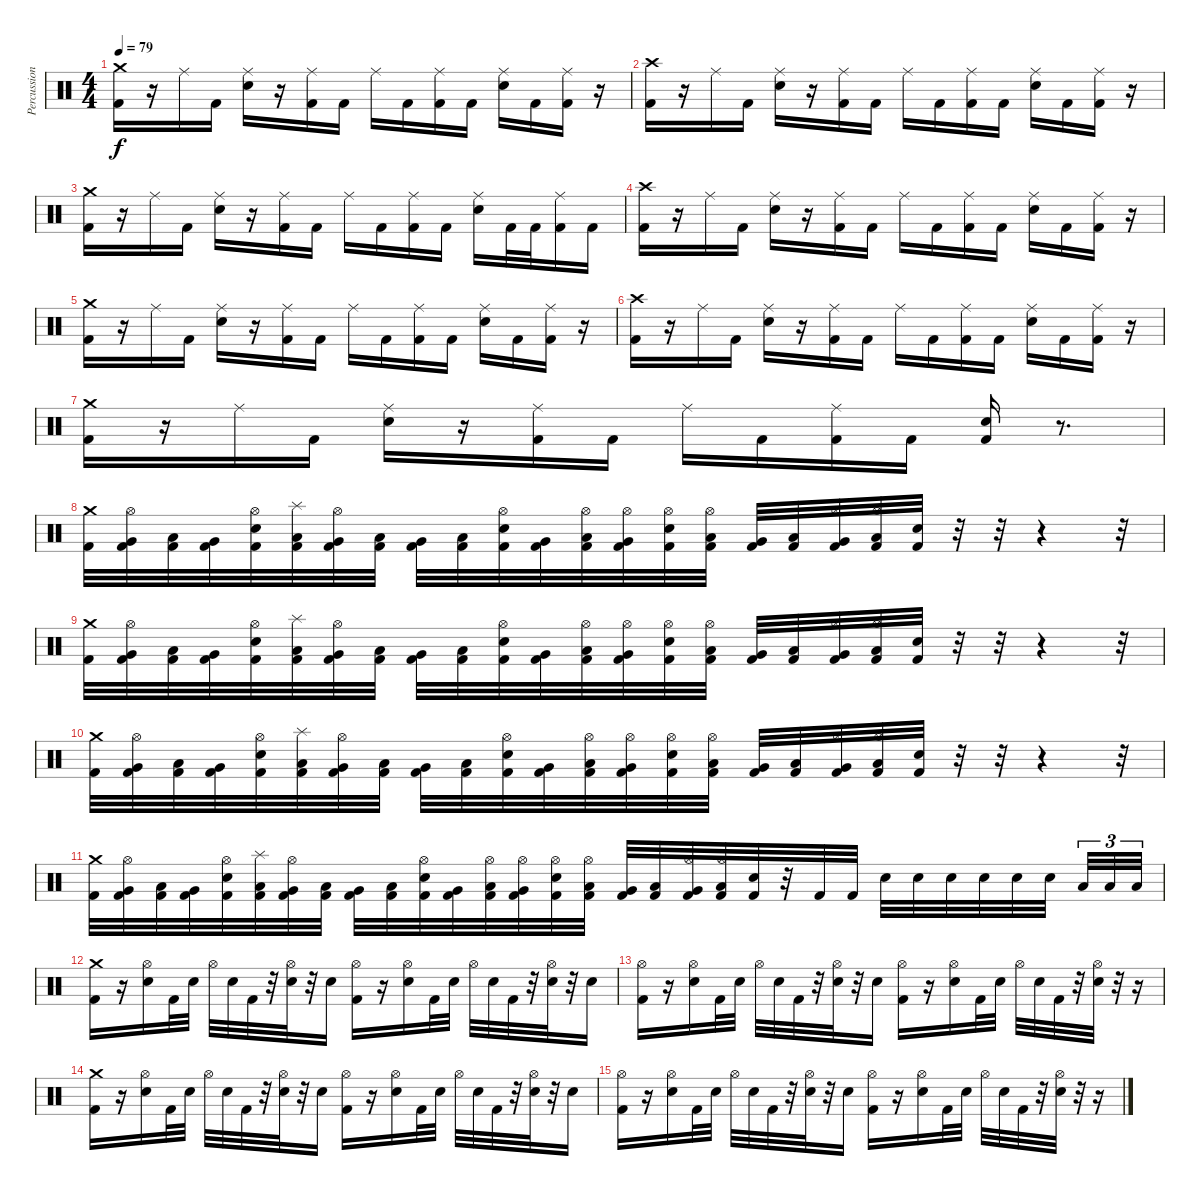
\track ("Percussion" "Percussion") {instrument percussion}
\staff {score}
\articulation defaults
\ts (4 4)
\tempo 79
\clef neutral
\ks c
("Crash medium (hit)" "Kick (hit) 2").16{dy f} r.16 "Ride (middle)".16 "Kick (hit) 2".16 ("Ride (middle)" "Electric Snare (hit)").16 r.16 ("Ride (middle)" "Kick (hit) 2").16 "Kick (hit) 2".16 "Ride (middle)".16 "Kick (hit) 2".16 ("Ride (middle)" "Kick (hit) 2").16 "Kick (hit) 2".16 ("Ride (middle)" "Electric Snare (hit)").16 "Kick (hit) 2".16 ("Ride (middle)" "Kick (hit) 2").16 r.16 |
("Crash high (hit)" "Kick (hit) 2").16 r.16 "Ride (middle)".16 "Kick (hit) 2".16 ("Ride (middle)" "Electric Snare (hit)").16 r.16 ("Ride (middle)" "Kick (hit) 2").16 "Kick (hit) 2".16 "Ride (middle)".16 "Kick (hit) 2".16 ("Ride (middle)" "Kick (hit) 2").16 "Kick (hit) 2".16 ("Ride (middle)" "Electric Snare (hit)").16 "Kick (hit) 2".16 ("Ride (middle)" "Kick (hit) 2").16 r.16 |
("Crash medium (hit)" "Kick (hit) 2").16 r.16 "Ride (middle)".16 "Kick (hit) 2".16 ("Ride (middle)" "Electric Snare (hit)").16 r.16 ("Ride (middle)" "Kick (hit) 2").16 "Kick (hit) 2".16 "Ride (middle)".16 "Kick (hit) 2".16 ("Ride (middle)" "Kick (hit) 2").16 "Kick (hit) 2".16 ("Ride (middle)" "Electric Snare (hit)").16 "Kick (hit) 2".32 "Kick (hit) 2".32 ("Ride (middle)" "Kick (hit) 2").16 "Kick (hit) 2".16 |
("Crash high (hit)" "Kick (hit) 2").16 r.16 "Ride (middle)".16 "Kick (hit) 2".16 ("Ride (middle)" "Electric Snare (hit)").16 r.16 ("Ride (middle)" "Kick (hit) 2").16 "Kick (hit) 2".16 "Ride (middle)".16 "Kick (hit) 2".16 ("Ride (middle)" "Kick (hit) 2").16 "Kick (hit) 2".16 ("Ride (middle)" "Electric Snare (hit)").16 "Kick (hit) 2".16 ("Ride (middle)" "Kick (hit) 2").16 r.16 |
("Crash medium (hit)" "Kick (hit) 2").16 r.16 "Ride (middle)".16 "Kick (hit) 2".16 ("Ride (middle)" "Electric Snare (hit)").16 r.16 ("Ride (middle)" "Kick (hit) 2").16 "Kick (hit) 2".16 "Ride (middle)".16 "Kick (hit) 2".16 ("Ride (middle)" "Kick (hit) 2").16 "Kick (hit) 2".16 ("Ride (middle)" "Electric Snare (hit)").16 "Kick (hit) 2".16 ("Ride (middle)" "Kick (hit) 2").16 r.16 |
("Crash high (hit)" "Kick (hit) 2").16 r.16 "Ride (middle)".16 "Kick (hit) 2".16 ("Ride (middle)" "Electric Snare (hit)").16 r.16 ("Ride (middle)" "Kick (hit) 2").16 "Kick (hit) 2".16 "Ride (middle)".16 "Kick (hit) 2".16 ("Ride (middle)" "Kick (hit) 2").16 "Kick (hit) 2".16 ("Ride (middle)" "Electric Snare (hit)").16 "Kick (hit) 2".16 ("Ride (middle)" "Kick (hit) 2").16 r.16 |
("Crash medium (hit)" "Kick (hit) 2").16 r.16 "Ride (middle)".16 "Kick (hit) 2".16 ("Ride (middle)" "Electric Snare (hit)").16 r.16 ("Ride (middle)" "Kick (hit) 2").16 "Kick (hit) 2".16 "Ride (middle)".16 "Kick (hit) 2".16 ("Ride (middle)" "Kick (hit) 2").16 "Kick (hit) 2".16 ("Electric Snare (hit)" "Kick (hit) 2").16 r.8{d} |
("Crash medium (hit)" "Kick (hit) 2").32 ("Hi-Hat (open)" "Very Low Tom (hit)" "Kick (hit) 2").32 ("Low Tom (hit)" "Kick (hit) 2").32 ("Very Low Tom (hit)" "Kick (hit) 2").32 ("Hi-Hat (open)" "Electric Snare (hit)" "Kick (hit) 2").32 ("Splash (hit)" "Low Tom (hit)" "Kick (hit) 2").32 ("Hi-Hat (open)" "Very Low Tom (hit)" "Kick (hit) 2").32 ("Low Tom (hit)" "Kick (hit) 2").32 ("Very Low Tom (hit)" "Kick (hit) 2").32 ("Low Tom (hit)" "Kick (hit) 2").32 ("Hi-Hat (open)" "Electric Snare (hit)" "Kick (hit) 2").32 ("Very Low Tom (hit)" "Kick (hit) 2").32 ("Hi-Hat (open)" "Low Tom (hit)" "Kick (hit) 2").32 ("Hi-Hat (open)" "Very Low Tom (hit)" "Kick (hit) 2").32 ("Hi-Hat (open)" "Electric Snare (hit)" "Kick (hit) 2").32 ("Hi-Hat (open)" "Low Tom (hit)" "Kick (hit) 2").32 ("Very Low Tom (hit)" "Kick (hit) 2").32 ("Low Tom (hit)" "Kick (hit) 2").32 ("Hi-Hat (open)" "Very Low Tom (hit)" "Kick (hit) 2").32 ("Hi-Hat (open)" "Low Tom (hit)" "Kick (hit) 2").32 ("Electric Snare (hit)" "Kick (hit) 2").32 r.32 r.32 r.4 r.32 |
("Crash medium (hit)" "Kick (hit) 2").32 ("Hi-Hat (open)" "Very Low Tom (hit)" "Kick (hit) 2").32 ("Low Tom (hit)" "Kick (hit) 2").32 ("Very Low Tom (hit)" "Kick (hit) 2").32 ("Hi-Hat (open)" "Electric Snare (hit)" "Kick (hit) 2").32 ("Splash (hit)" "Low Tom (hit)" "Kick (hit) 2").32 ("Hi-Hat (open)" "Very Low Tom (hit)" "Kick (hit) 2").32 ("Low Tom (hit)" "Kick (hit) 2").32 ("Very Low Tom (hit)" "Kick (hit) 2").32 ("Low Tom (hit)" "Kick (hit) 2").32 ("Hi-Hat (open)" "Electric Snare (hit)" "Kick (hit) 2").32 ("Very Low Tom (hit)" "Kick (hit) 2").32 ("Hi-Hat (open)" "Low Tom (hit)" "Kick (hit) 2").32 ("Hi-Hat (open)" "Very Low Tom (hit)" "Kick (hit) 2").32 ("Hi-Hat (open)" "Electric Snare (hit)" "Kick (hit) 2").32 ("Hi-Hat (open)" "Low Tom (hit)" "Kick (hit) 2").32 ("Very Low Tom (hit)" "Kick (hit) 2").32 ("Low Tom (hit)" "Kick (hit) 2").32 ("Hi-Hat (open)" "Very Low Tom (hit)" "Kick (hit) 2").32 ("Hi-Hat (open)" "Low Tom (hit)" "Kick (hit) 2").32 ("Electric Snare (hit)" "Kick (hit) 2").32 r.32 r.32 r.4 r.32 |
("Crash medium (hit)" "Kick (hit) 2").32 ("Hi-Hat (open)" "Very Low Tom (hit)" "Kick (hit) 2").32 ("Low Tom (hit)" "Kick (hit) 2").32 ("Very Low Tom (hit)" "Kick (hit) 2").32 ("Hi-Hat (open)" "Electric Snare (hit)" "Kick (hit) 2").32 ("Splash (hit)" "Low Tom (hit)" "Kick (hit) 2").32 ("Hi-Hat (open)" "Very Low Tom (hit)" "Kick (hit) 2").32 ("Low Tom (hit)" "Kick (hit) 2").32 ("Very Low Tom (hit)" "Kick (hit) 2").32 ("Low Tom (hit)" "Kick (hit) 2").32 ("Hi-Hat (open)" "Electric Snare (hit)" "Kick (hit) 2").32 ("Very Low Tom (hit)" "Kick (hit) 2").32 ("Hi-Hat (open)" "Low Tom (hit)" "Kick (hit) 2").32 ("Hi-Hat (open)" "Very Low Tom (hit)" "Kick (hit) 2").32 ("Hi-Hat (open)" "Electric Snare (hit)" "Kick (hit) 2").32 ("Hi-Hat (open)" "Low Tom (hit)" "Kick (hit) 2").32 ("Very Low Tom (hit)" "Kick (hit) 2").32 ("Low Tom (hit)" "Kick (hit) 2").32 ("Hi-Hat (open)" "Very Low Tom (hit)" "Kick (hit) 2").32 ("Hi-Hat (open)" "Low Tom (hit)" "Kick (hit) 2").32 ("Electric Snare (hit)" "Kick (hit) 2").32 r.32 r.32 r.4 r.32 |
("Crash medium (hit)" "Kick (hit) 2").32 ("Hi-Hat (open)" "Very Low Tom (hit)" "Kick (hit) 2").32 ("Low Tom (hit)" "Kick (hit) 2").32 ("Very Low Tom (hit)" "Kick (hit) 2").32 ("Hi-Hat (open)" "Electric Snare (hit)" "Kick (hit) 2").32 ("Splash (hit)" "Low Tom (hit)" "Kick (hit) 2").32 ("Hi-Hat (open)" "Very Low Tom (hit)" "Kick (hit) 2").32 ("Low Tom (hit)" "Kick (hit) 2").32 ("Very Low Tom (hit)" "Kick (hit) 2").32 ("Low Tom (hit)" "Kick (hit) 2").32 ("Hi-Hat (open)" "Electric Snare (hit)" "Kick (hit) 2").32 ("Very Low Tom (hit)" "Kick (hit) 2").32 ("Hi-Hat (open)" "Low Tom (hit)" "Kick (hit) 2").32 ("Hi-Hat (open)" "Very Low Tom (hit)" "Kick (hit) 2").32 ("Hi-Hat (open)" "Electric Snare (hit)" "Kick (hit) 2").32 ("Hi-Hat (open)" "Low Tom (hit)" "Kick (hit) 2").32 ("Very Low Tom (hit)" "Kick (hit) 2").32 ("Low Tom (hit)" "Kick (hit) 2").32 ("Hi-Hat (open)" "Very Low Tom (hit)" "Kick (hit) 2").32 ("Hi-Hat (open)" "Low Tom (hit)" "Kick (hit) 2").32 ("Electric Snare (hit)" "Kick (hit) 2").32 r.32 "Kick (hit) 2".32 "Kick (hit) 2".32 "Electric Snare (hit)".32 "Electric Snare (hit)".32 "Electric Snare (hit)".32 "Electric Snare (hit)".32 "Electric Snare (hit)".32 "Electric Snare (hit)".32 "Low Tom (hit)".32{tu (3 2)} "Low Tom (hit)".32{tu (3 2)} "Low Tom (hit)".32{tu (3 2)} |
("Crash medium (hit)" "Kick (hit) 2").16 r.16 ("Hi-Hat (open)" "Electric Snare (hit)").16 "Kick (hit) 2".32 "Electric Snare (hit)".32 "Hi-Hat (open)".32 "Electric Snare (hit)".32 "Kick (hit) 2".32 r.32 ("Hi-Hat (open)" "Electric Snare (hit)").32 r.32 "Electric Snare (hit)".16 ("Hi-Hat (open)" "Kick (hit) 2").16 r.16 ("Hi-Hat (open)" "Electric Snare (hit)").16 "Kick (hit) 2".32 "Electric Snare (hit)".32 "Hi-Hat (open)".32 "Electric Snare (hit)".32 "Kick (hit) 2".32 r.32 ("Hi-Hat (open)" "Electric Snare (hit)").32 r.32 "Electric Snare (hit)".16 |
("Hi-Hat (open)" "Kick (hit) 2").16 r.16 ("Hi-Hat (open)" "Electric Snare (hit)").16 "Kick (hit) 2".32 "Electric Snare (hit)".32 "Hi-Hat (open)".32 "Electric Snare (hit)".32 "Kick (hit) 2".32 r.32 ("Hi-Hat (open)" "Electric Snare (hit)").32 r.32 "Electric Snare (hit)".16 ("Hi-Hat (open)" "Kick (hit) 2").16 r.16 ("Hi-Hat (open)" "Electric Snare (hit)").16 "Kick (hit) 2".32 "Electric Snare (hit)".32 "Hi-Hat (open)".32 "Electric Snare (hit)".32 "Kick (hit) 2".32 r.32 ("Hi-Hat (open)" "Electric Snare (hit)").32 r.32 r.16 |
("Crash medium (hit)" "Kick (hit) 2").16 r.16 ("Hi-Hat (open)" "Electric Snare (hit)").16 "Kick (hit) 2".32 "Electric Snare (hit)".32 "Hi-Hat (open)".32 "Electric Snare (hit)".32 "Kick (hit) 2".32 r.32 ("Hi-Hat (open)" "Electric Snare (hit)").32 r.32 "Electric Snare (hit)".16 ("Hi-Hat (open)" "Kick (hit) 2").16 r.16 ("Hi-Hat (open)" "Electric Snare (hit)").16 "Kick (hit) 2".32 "Electric Snare (hit)".32 "Hi-Hat (open)".32 "Electric Snare (hit)".32 "Kick (hit) 2".32 r.32 ("Hi-Hat (open)" "Electric Snare (hit)").32 r.32 "Electric Snare (hit)".16 |
("Hi-Hat (open)" "Kick (hit) 2").16 r.16 ("Hi-Hat (open)" "Electric Snare (hit)").16 "Kick (hit) 2".32 "Electric Snare (hit)".32 "Hi-Hat (open)".32 "Electric Snare (hit)".32 "Kick (hit) 2".32 r.32 ("Hi-Hat (open)" "Electric Snare (hit)").32 r.32 "Electric Snare (hit)".16 ("Hi-Hat (open)" "Kick (hit) 2").16 r.16 ("Hi-Hat (open)" "Electric Snare (hit)").16 "Kick (hit) 2".32 "Electric Snare (hit)".32 "Hi-Hat (open)".32 "Electric Snare (hit)".32 "Kick (hit) 2".32 r.32 ("Hi-Hat (open)" "Electric Snare (hit)").32 r.32 r.16
